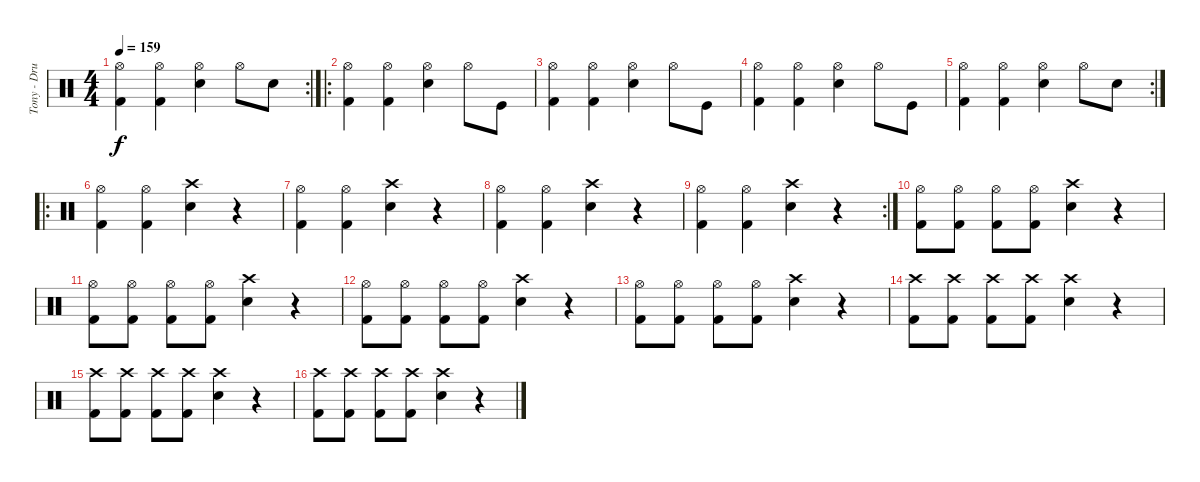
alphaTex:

\track ("Tony - Drums" "Tony - Dru") {instrument percussion}
\staff {score}
\articulation defaults
\rc 2
\ts (4 4)
\tempo 159
\clef neutral
\ks c
("Hi-Hat (open)" "Kick (hit) 2").4{dy f} ("Hi-Hat (open)" "Kick (hit) 2").4 ("Hi-Hat (open)" "Electric Snare (hit)").4 "Hi-Hat (open)".8 "Snare (hit) 2".8 |
\ro
("Hi-Hat (open)" "Kick (hit) 2").4 ("Hi-Hat (open)" "Kick (hit) 2").4 ("Hi-Hat (open)" "Electric Snare (hit)").4 "Hi-Hat (open)".8 "Kick (hit)".8 |
("Hi-Hat (open)" "Kick (hit) 2").4 ("Hi-Hat (open)" "Kick (hit) 2").4 ("Hi-Hat (open)" "Electric Snare (hit)").4 "Hi-Hat (open)".8 "Kick (hit)".8 |
("Hi-Hat (open)" "Kick (hit) 2").4 ("Hi-Hat (open)" "Kick (hit) 2").4 ("Hi-Hat (open)" "Electric Snare (hit)").4 "Hi-Hat (open)".8 "Kick (hit)".8 |
\rc 2
("Hi-Hat (open)" "Kick (hit) 2").4 ("Hi-Hat (open)" "Kick (hit) 2").4 ("Hi-Hat (open)" "Electric Snare (hit)").4 "Hi-Hat (open)".8 "Snare (hit) 2".8 |
\ro
("Hi-Hat (open)" "Kick (hit) 2").4 ("Hi-Hat (open)" "Kick (hit) 2").4 ("Crash high (hit)" "Electric Snare (hit)").4 r.4 |
("Hi-Hat (open)" "Kick (hit) 2").4 ("Hi-Hat (open)" "Kick (hit) 2").4 ("Crash high (hit)" "Electric Snare (hit)").4 r.4 |
("Hi-Hat (open)" "Kick (hit) 2").4 ("Hi-Hat (open)" "Kick (hit) 2").4 ("Crash high (hit)" "Electric Snare (hit)").4 r.4 |
\rc 2
("Hi-Hat (open)" "Kick (hit) 2").4 ("Hi-Hat (open)" "Kick (hit) 2").4 ("Crash high (hit)" "Electric Snare (hit)").4 r.4 |
("Hi-Hat (open)" "Kick (hit) 2").8 ("Hi-Hat (open)" "Kick (hit) 2").8 ("Hi-Hat (open)" "Kick (hit) 2").8 ("Hi-Hat (open)" "Kick (hit) 2").8 ("Crash high (hit)" "Electric Snare (hit)").4 r.4 |
("Hi-Hat (open)" "Kick (hit) 2").8 ("Hi-Hat (open)" "Kick (hit) 2").8 ("Hi-Hat (open)" "Kick (hit) 2").8 ("Hi-Hat (open)" "Kick (hit) 2").8 ("Crash high (hit)" "Electric Snare (hit)").4 r.4 |
("Hi-Hat (open)" "Kick (hit) 2").8 ("Hi-Hat (open)" "Kick (hit) 2").8 ("Hi-Hat (open)" "Kick (hit) 2").8 ("Hi-Hat (open)" "Kick (hit) 2").8 ("Crash high (hit)" "Electric Snare (hit)").4 r.4 |
("Hi-Hat (open)" "Kick (hit) 2").8 ("Hi-Hat (open)" "Kick (hit) 2").8 ("Hi-Hat (open)" "Kick (hit) 2").8 ("Hi-Hat (open)" "Kick (hit) 2").8 ("Crash high (hit)" "Electric Snare (hit)").4 r.4 |
("Crash high (hit)" "Kick (hit) 2").8 ("Crash high (hit)" "Kick (hit) 2").8 ("Crash high (hit)" "Kick (hit) 2").8 ("Crash high (hit)" "Kick (hit) 2").8 ("Crash high (hit)" "Snare (hit) 2").4 r.4 |
("Crash high (hit)" "Kick (hit) 2").8 ("Crash high (hit)" "Kick (hit) 2").8 ("Crash high (hit)" "Kick (hit) 2").8 ("Crash high (hit)" "Kick (hit) 2").8 ("Crash high (hit)" "Snare (hit) 2").4 r.4 |
("Crash high (hit)" "Kick (hit) 2").8 ("Crash high (hit)" "Kick (hit) 2").8 ("Crash high (hit)" "Kick (hit) 2").8 ("Crash high (hit)" "Kick (hit) 2").8 ("Crash high (hit)" "Snare (hit) 2").4 r.4
